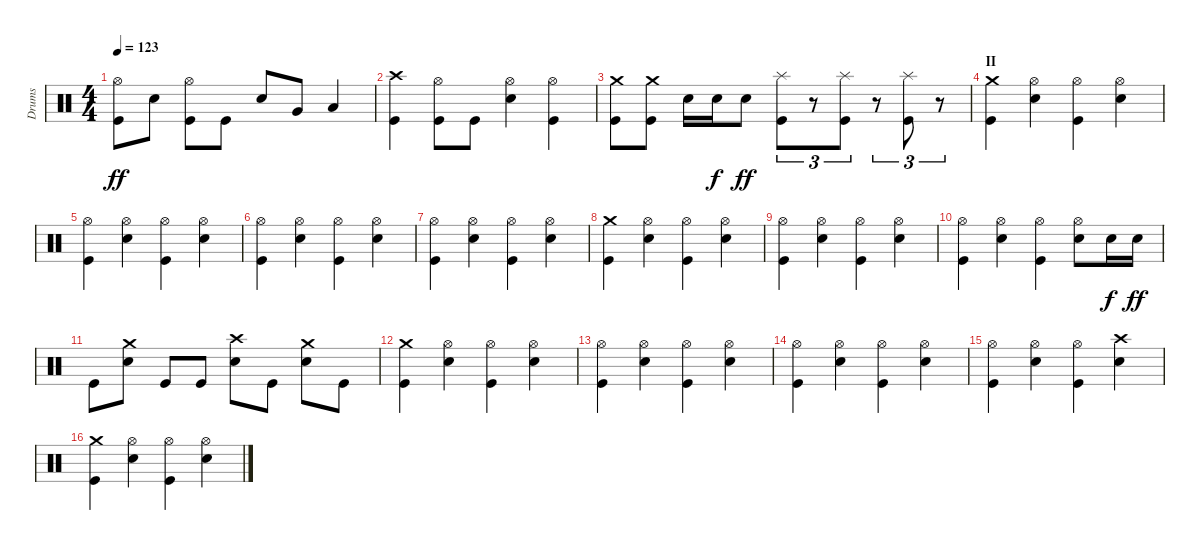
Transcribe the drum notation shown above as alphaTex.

\track ("Drums" "Drums") {instrument percussion}
\staff {score}
\articulation defaults
\ts (4 4)
\tempo 123
\clef neutral
\ks c
("Hi-Hat (open)" "Kick (hit)").8{dy ff} "Electric Snare (hit)".8 ("Hi-Hat (open)" "Kick (hit)").8 "Kick (hit)".8 "Electric Snare (hit)".8 "Very Low Tom (hit)".8 "Low Floor Tom (hit)".4 |
("Crash high (hit)" "Kick (hit)").4 ("Hi-Hat (open)" "Kick (hit)").8 "Kick (hit)".8 ("Hi-Hat (open)" "Electric Snare (hit)").4 ("Hi-Hat (open)" "Kick (hit)").4 |
("Crash medium (hit)" "Kick (hit)").8 ("Crash medium (hit)" "Kick (hit)").8 "Electric Snare (hit)".16 "Electric Snare (hit)".16{dy f} "Electric Snare (hit)".8{dy ff} ("Splash (hit)" "Kick (hit)").8{tu (3 2)} r.8{tu (3 2)} ("Splash (hit)" "Kick (hit)").8{tu (3 2)} r.8{tu (3 2)} ("Splash (hit)" "Kick (hit)").8{tu (3 2)} r.8{tu (3 2)} |
\section ("" "Ⅱ")
("Crash medium (hit)" "Kick (hit)").4 ("Hi-Hat (open)" "Electric Snare (hit)").4 ("Hi-Hat (open)" "Kick (hit)").4 ("Hi-Hat (open)" "Electric Snare (hit)").4 |
("Hi-Hat (open)" "Kick (hit)").4 ("Hi-Hat (open)" "Electric Snare (hit)").4 ("Hi-Hat (open)" "Kick (hit)").4 ("Hi-Hat (open)" "Electric Snare (hit)").4 |
("Hi-Hat (open)" "Kick (hit)").4 ("Hi-Hat (open)" "Electric Snare (hit)").4 ("Hi-Hat (open)" "Kick (hit)").4 ("Hi-Hat (open)" "Electric Snare (hit)").4 |
("Hi-Hat (open)" "Kick (hit)").4 ("Hi-Hat (open)" "Electric Snare (hit)").4 ("Hi-Hat (open)" "Kick (hit)").4 ("Hi-Hat (open)" "Electric Snare (hit)").4 |
("Crash medium (hit)" "Kick (hit)").4 ("Hi-Hat (open)" "Electric Snare (hit)").4 ("Hi-Hat (open)" "Kick (hit)").4 ("Hi-Hat (open)" "Electric Snare (hit)").4 |
("Hi-Hat (open)" "Kick (hit)").4 ("Hi-Hat (open)" "Electric Snare (hit)").4 ("Hi-Hat (open)" "Kick (hit)").4 ("Hi-Hat (open)" "Electric Snare (hit)").4 |
("Hi-Hat (open)" "Kick (hit)").4 ("Hi-Hat (open)" "Electric Snare (hit)").4 ("Hi-Hat (open)" "Kick (hit)").4 ("Hi-Hat (open)" "Electric Snare (hit)").8 "Electric Snare (hit)".16{dy f} "Electric Snare (hit)".16{dy ff} |
"Kick (hit)".8 ("Crash medium (hit)" "Electric Snare (hit)").8 "Kick (hit)".8 "Kick (hit)".8 ("Crash high (hit)" "Electric Snare (hit)").8 "Kick (hit)".8 ("Crash medium (hit)" "Electric Snare (hit)").8 "Kick (hit)".8 |
("Crash medium (hit)" "Kick (hit)").4 ("Hi-Hat (open)" "Electric Snare (hit)").4 ("Hi-Hat (open)" "Kick (hit)").4 ("Hi-Hat (open)" "Electric Snare (hit)").4 |
("Hi-Hat (open)" "Kick (hit)").4 ("Hi-Hat (open)" "Electric Snare (hit)").4 ("Hi-Hat (open)" "Kick (hit)").4 ("Hi-Hat (open)" "Electric Snare (hit)").4 |
("Hi-Hat (open)" "Kick (hit)").4 ("Hi-Hat (open)" "Electric Snare (hit)").4 ("Hi-Hat (open)" "Kick (hit)").4 ("Hi-Hat (open)" "Electric Snare (hit)").4 |
("Hi-Hat (open)" "Kick (hit)").4 ("Hi-Hat (open)" "Electric Snare (hit)").4 ("Hi-Hat (open)" "Kick (hit)").4 ("Crash high (hit)" "Electric Snare (hit)").4 |
("Crash medium (hit)" "Kick (hit)").4 ("Hi-Hat (open)" "Electric Snare (hit)").4 ("Hi-Hat (open)" "Kick (hit)").4 ("Hi-Hat (open)" "Electric Snare (hit)").4
